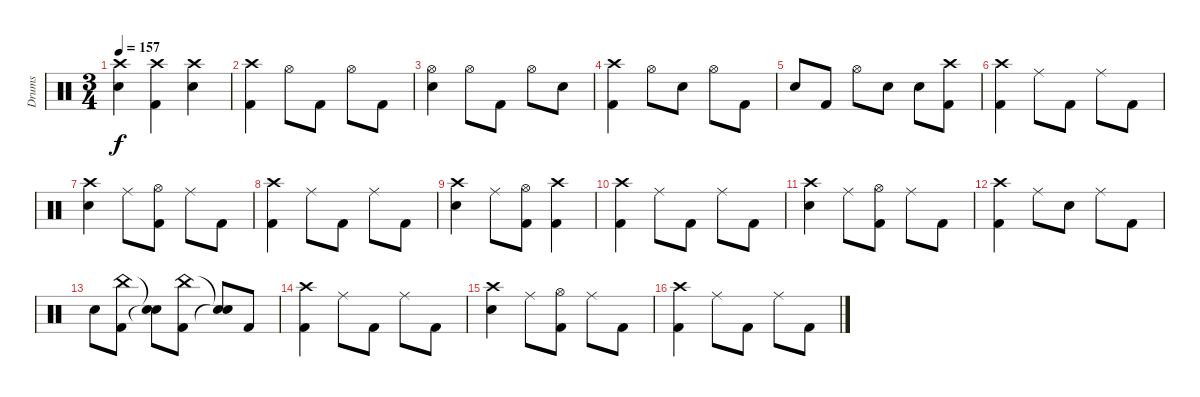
\track ("Drums" "Drums") {instrument percussion}
\staff {score}
\articulation defaults
\ts (3 4)
\tempo 157
\clef neutral
\ks c
("Crash high (hit)" "Electric Snare (hit)").4{dy f} ("Crash high (hit)" "Kick (hit) 2").4 ("Crash high (hit)" "Electric Snare (hit)").4 |
("Crash high (hit)" "Kick (hit) 2").4 "Hi-Hat (open)".8 "Kick (hit) 2".8 "Hi-Hat (open)".8 "Kick (hit) 2".8 |
("Hi-Hat (open)" "Electric Snare (hit)").4 "Hi-Hat (open)".8 "Kick (hit) 2".8 "Hi-Hat (open)".8 "Electric Snare (hit)".8 |
("Crash high (hit)" "Kick (hit) 2").4 "Hi-Hat (open)".8 "Electric Snare (hit)".8 "Hi-Hat (open)".8 "Kick (hit) 2".8 |
"Electric Snare (hit)".8 "Kick (hit) 2".8 "Hi-Hat (open)".8 "Electric Snare (hit)".8 "Electric Snare (hit)".8 ("Crash high (hit)" "Kick (hit) 2").8 |
("Crash high (hit)" "Kick (hit) 2").4 "Ride (middle)".8 "Kick (hit) 2".8 "Ride (middle)".8 "Kick (hit) 2".8 |
("Crash high (hit)" "Electric Snare (hit)").4 "Ride (middle)".8 ("Hi-Hat (open)" "Kick (hit) 2").8 "Ride (middle)".8 "Kick (hit) 2".8 |
("Crash high (hit)" "Kick (hit) 2").4 "Ride (middle)".8 "Kick (hit) 2".8 "Ride (middle)".8 "Kick (hit) 2".8 |
("Crash high (hit)" "Electric Snare (hit)").4 "Ride (middle)".8 ("Hi-Hat (open)" "Kick (hit) 2").8 ("Crash high (hit)" "Kick (hit) 2").4 |
("Crash high (hit)" "Kick (hit) 2").4 "Ride (middle)".8 "Kick (hit) 2".8 "Ride (middle)".8 "Kick (hit) 2".8 |
("Crash high (hit)" "Electric Snare (hit)").4 "Ride (middle)".8 ("Hi-Hat (open)" "Kick (hit) 2").8 "Ride (middle)".8 "Kick (hit) 2".8 |
("Crash high (hit)" "Kick (hit) 2").4 "Ride (middle)".8 "Electric Snare (hit)".8 "Ride (middle)".8 "Kick (hit) 2".8 |
"Electric Snare (hit)".8 ("China (hit)" "Kick (hit) 2").8 ("Snare (hit)"{t} "Snare (hit)"{t}).8 ("China (hit)" "Kick (hit) 2").8 ("Snare (hit)"{t} "Snare (hit)"{t}).8 "Kick (hit) 2".8 |
("Crash high (hit)" "Kick (hit) 2").4 "Ride (middle)".8 "Kick (hit) 2".8 "Ride (middle)".8 "Kick (hit) 2".8 |
("Crash high (hit)" "Electric Snare (hit)").4 "Ride (middle)".8 ("Hi-Hat (open)" "Kick (hit) 2").8 "Ride (middle)".8 "Kick (hit) 2".8 |
("Crash high (hit)" "Kick (hit) 2").4 "Ride (middle)".8 "Kick (hit) 2".8 "Ride (middle)".8 "Kick (hit) 2".8
